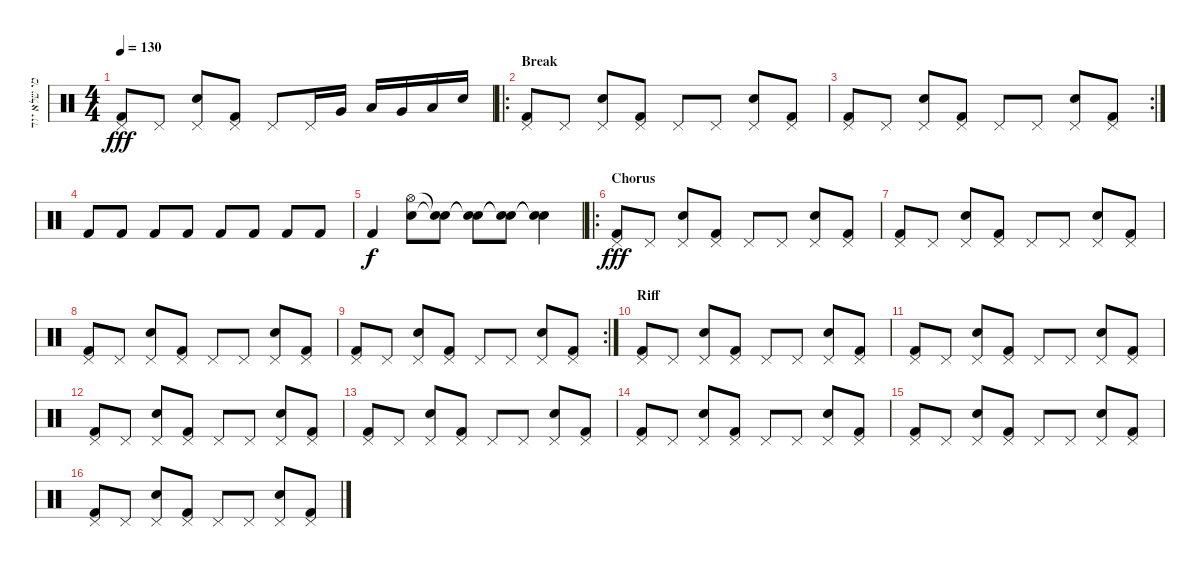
\track ("מי שלא יודע עברית סתם הומו" "מי שלא יוד") {instrument percussion}
\staff {score}
\articulation defaults
\ts (4 4)
\tempo 130
\clef neutral
\ks c
("Pedal Hi-Hat (hit)" "Kick (hit) 2").8{dy fff} "Pedal Hi-Hat (hit)".8 ("Pedal Hi-Hat (hit)" "Snare (hit) 2").8 ("Pedal Hi-Hat (hit)" "Kick (hit) 2").8 "Pedal Hi-Hat (hit)".8 "Pedal Hi-Hat (hit)".16 "Very Low Tom (hit)".16 "Low Tom (hit)".16 "Very Low Tom (hit)".16 "Low Floor Tom (hit)".16 "Electric Snare (hit)".16 |
\ro
\section ("" "Break")
("Pedal Hi-Hat (hit)" "Kick (hit) 2").8 "Pedal Hi-Hat (hit)".8 ("Pedal Hi-Hat (hit)" "Snare (hit) 2").8 ("Pedal Hi-Hat (hit)" "Kick (hit) 2").8 "Pedal Hi-Hat (hit)".8 "Pedal Hi-Hat (hit)".8 ("Pedal Hi-Hat (hit)" "Snare (hit) 2").8 ("Pedal Hi-Hat (hit)" "Kick (hit) 2").8 |
\rc 2
("Pedal Hi-Hat (hit)" "Kick (hit) 2").8 "Pedal Hi-Hat (hit)".8 ("Pedal Hi-Hat (hit)" "Snare (hit) 2").8 ("Pedal Hi-Hat (hit)" "Kick (hit) 2").8 "Pedal Hi-Hat (hit)".8 "Pedal Hi-Hat (hit)".8 ("Pedal Hi-Hat (hit)" "Snare (hit) 2").8 ("Pedal Hi-Hat (hit)" "Kick (hit) 2").8 |
"Kick (hit) 2".8 "Kick (hit) 2".8 "Kick (hit) 2".8 "Kick (hit) 2".8 "Kick (hit) 2".8 "Kick (hit) 2".8 "Kick (hit) 2".8 "Kick (hit) 2".8 |
"Kick (hit) 2".4{dy f} ("Hi-Hat (open)" "Electric Snare (hit)").8 ("Snare (hit)"{t} "Snare (hit)"{t}).8 ("Snare (hit)"{t} "Snare (hit)"{t}).8 ("Snare (hit)"{t} "Snare (hit)"{t}).8 ("Snare (hit)"{t} "Snare (hit)"{t}).4 |
\ro
\section ("" "Chorus")
("Pedal Hi-Hat (hit)" "Kick (hit) 2").8{dy fff} "Pedal Hi-Hat (hit)".8 ("Pedal Hi-Hat (hit)" "Snare (hit) 2").8 ("Pedal Hi-Hat (hit)" "Kick (hit) 2").8 "Pedal Hi-Hat (hit)".8 "Pedal Hi-Hat (hit)".8 ("Pedal Hi-Hat (hit)" "Snare (hit) 2").8 ("Pedal Hi-Hat (hit)" "Kick (hit) 2").8 |
("Pedal Hi-Hat (hit)" "Kick (hit) 2").8 "Pedal Hi-Hat (hit)".8 ("Pedal Hi-Hat (hit)" "Snare (hit) 2").8 ("Pedal Hi-Hat (hit)" "Kick (hit) 2").8 "Pedal Hi-Hat (hit)".8 "Pedal Hi-Hat (hit)".8 ("Pedal Hi-Hat (hit)" "Snare (hit) 2").8 ("Pedal Hi-Hat (hit)" "Kick (hit) 2").8 |
("Pedal Hi-Hat (hit)" "Kick (hit) 2").8 "Pedal Hi-Hat (hit)".8 ("Pedal Hi-Hat (hit)" "Snare (hit) 2").8 ("Pedal Hi-Hat (hit)" "Kick (hit) 2").8 "Pedal Hi-Hat (hit)".8 "Pedal Hi-Hat (hit)".8 ("Pedal Hi-Hat (hit)" "Snare (hit) 2").8 ("Pedal Hi-Hat (hit)" "Kick (hit) 2").8 |
\rc 2
("Pedal Hi-Hat (hit)" "Kick (hit) 2").8 "Pedal Hi-Hat (hit)".8 ("Pedal Hi-Hat (hit)" "Snare (hit) 2").8 ("Pedal Hi-Hat (hit)" "Kick (hit) 2").8 "Pedal Hi-Hat (hit)".8 "Pedal Hi-Hat (hit)".8 ("Pedal Hi-Hat (hit)" "Snare (hit) 2").8 ("Pedal Hi-Hat (hit)" "Kick (hit) 2").8 |
\section ("" "Riff")
("Pedal Hi-Hat (hit)" "Kick (hit) 2").8 "Pedal Hi-Hat (hit)".8 ("Pedal Hi-Hat (hit)" "Snare (hit) 2").8 ("Pedal Hi-Hat (hit)" "Kick (hit) 2").8 "Pedal Hi-Hat (hit)".8 "Pedal Hi-Hat (hit)".8 ("Pedal Hi-Hat (hit)" "Snare (hit) 2").8 ("Pedal Hi-Hat (hit)" "Kick (hit) 2").8 |
("Pedal Hi-Hat (hit)" "Kick (hit) 2").8 "Pedal Hi-Hat (hit)".8 ("Pedal Hi-Hat (hit)" "Snare (hit) 2").8 ("Pedal Hi-Hat (hit)" "Kick (hit) 2").8 "Pedal Hi-Hat (hit)".8 "Pedal Hi-Hat (hit)".8 ("Pedal Hi-Hat (hit)" "Snare (hit) 2").8 ("Pedal Hi-Hat (hit)" "Kick (hit) 2").8 |
("Pedal Hi-Hat (hit)" "Kick (hit) 2").8 "Pedal Hi-Hat (hit)".8 ("Pedal Hi-Hat (hit)" "Snare (hit) 2").8 ("Pedal Hi-Hat (hit)" "Kick (hit) 2").8 "Pedal Hi-Hat (hit)".8 "Pedal Hi-Hat (hit)".8 ("Pedal Hi-Hat (hit)" "Snare (hit) 2").8 ("Pedal Hi-Hat (hit)" "Kick (hit) 2").8 |
("Pedal Hi-Hat (hit)" "Kick (hit) 2").8 "Pedal Hi-Hat (hit)".8 ("Pedal Hi-Hat (hit)" "Snare (hit) 2").8 ("Pedal Hi-Hat (hit)" "Kick (hit) 2").8 "Pedal Hi-Hat (hit)".8 "Pedal Hi-Hat (hit)".8 ("Pedal Hi-Hat (hit)" "Snare (hit) 2").8 ("Pedal Hi-Hat (hit)" "Kick (hit) 2").8 |
("Pedal Hi-Hat (hit)" "Kick (hit) 2").8 "Pedal Hi-Hat (hit)".8 ("Pedal Hi-Hat (hit)" "Snare (hit) 2").8 ("Pedal Hi-Hat (hit)" "Kick (hit) 2").8 "Pedal Hi-Hat (hit)".8 "Pedal Hi-Hat (hit)".8 ("Pedal Hi-Hat (hit)" "Snare (hit) 2").8 ("Pedal Hi-Hat (hit)" "Kick (hit) 2").8 |
("Pedal Hi-Hat (hit)" "Kick (hit) 2").8 "Pedal Hi-Hat (hit)".8 ("Pedal Hi-Hat (hit)" "Snare (hit) 2").8 ("Pedal Hi-Hat (hit)" "Kick (hit) 2").8 "Pedal Hi-Hat (hit)".8 "Pedal Hi-Hat (hit)".8 ("Pedal Hi-Hat (hit)" "Snare (hit) 2").8 ("Pedal Hi-Hat (hit)" "Kick (hit) 2").8 |
("Pedal Hi-Hat (hit)" "Kick (hit) 2").8 "Pedal Hi-Hat (hit)".8 ("Pedal Hi-Hat (hit)" "Snare (hit) 2").8 ("Pedal Hi-Hat (hit)" "Kick (hit) 2").8 "Pedal Hi-Hat (hit)".8 "Pedal Hi-Hat (hit)".8 ("Pedal Hi-Hat (hit)" "Snare (hit) 2").8 ("Pedal Hi-Hat (hit)" "Kick (hit) 2").8
